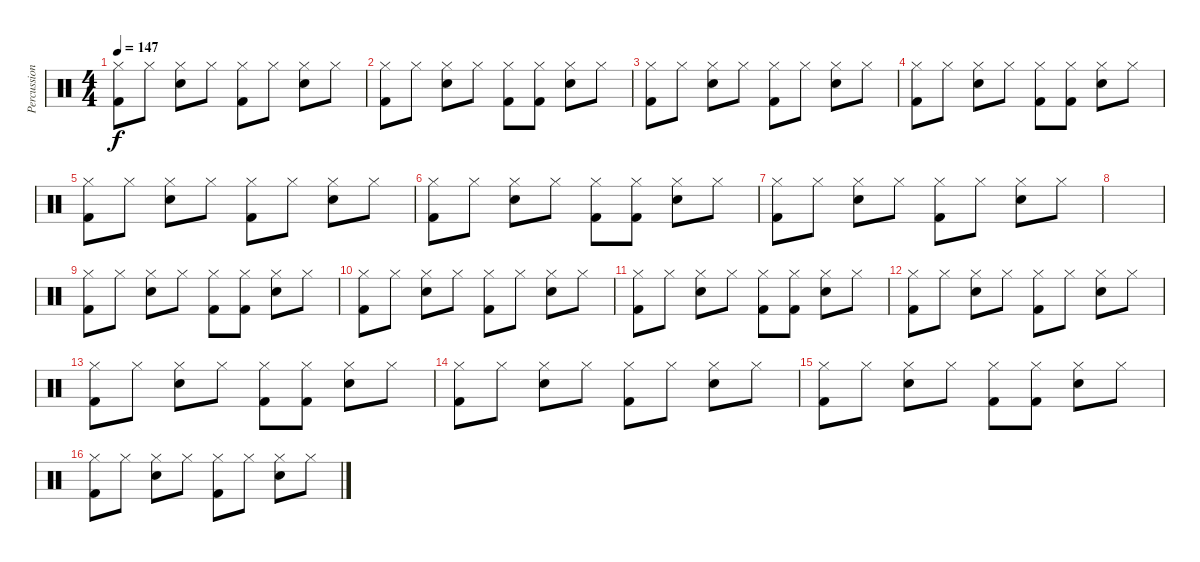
\track ("Percussions" "Percussion") {instrument percussion}
\staff {score}
\articulation defaults
\ts (4 4)
\tempo 147
\clef neutral
\ks c
("Kick (hit) 2" "Hi-Hat (closed)").8{dy f} "Hi-Hat (closed)".8 ("Electric Snare (hit)" "Hi-Hat (closed)").8 "Hi-Hat (closed)".8 ("Kick (hit) 2" "Hi-Hat (closed)").8 "Hi-Hat (closed)".8 ("Electric Snare (hit)" "Hi-Hat (closed)").8 "Hi-Hat (closed)".8 |
("Kick (hit) 2" "Hi-Hat (closed)").8 "Hi-Hat (closed)".8 ("Electric Snare (hit)" "Hi-Hat (closed)").8 "Hi-Hat (closed)".8 ("Kick (hit) 2" "Hi-Hat (closed)").8 ("Kick (hit) 2" "Hi-Hat (closed)").8 ("Electric Snare (hit)" "Hi-Hat (closed)").8 "Hi-Hat (closed)".8 |
("Kick (hit) 2" "Hi-Hat (closed)").8 "Hi-Hat (closed)".8 ("Electric Snare (hit)" "Hi-Hat (closed)").8 "Hi-Hat (closed)".8 ("Kick (hit) 2" "Hi-Hat (closed)").8 "Hi-Hat (closed)".8 ("Electric Snare (hit)" "Hi-Hat (closed)").8 "Hi-Hat (closed)".8 |
("Kick (hit) 2" "Hi-Hat (closed)").8 "Hi-Hat (closed)".8 ("Electric Snare (hit)" "Hi-Hat (closed)").8 "Hi-Hat (closed)".8 ("Kick (hit) 2" "Hi-Hat (closed)").8 ("Kick (hit) 2" "Hi-Hat (closed)").8 ("Electric Snare (hit)" "Hi-Hat (closed)").8 "Hi-Hat (closed)".8 |
("Kick (hit) 2" "Hi-Hat (closed)").8 "Hi-Hat (closed)".8 ("Electric Snare (hit)" "Hi-Hat (closed)").8 "Hi-Hat (closed)".8 ("Kick (hit) 2" "Hi-Hat (closed)").8 "Hi-Hat (closed)".8 ("Electric Snare (hit)" "Hi-Hat (closed)").8 "Hi-Hat (closed)".8 |
("Kick (hit) 2" "Hi-Hat (closed)").8 "Hi-Hat (closed)".8 ("Electric Snare (hit)" "Hi-Hat (closed)").8 "Hi-Hat (closed)".8 ("Kick (hit) 2" "Hi-Hat (closed)").8 ("Kick (hit) 2" "Hi-Hat (closed)").8 ("Electric Snare (hit)" "Hi-Hat (closed)").8 "Hi-Hat (closed)".8 |
("Kick (hit) 2" "Hi-Hat (closed)").8 "Hi-Hat (closed)".8 ("Electric Snare (hit)" "Hi-Hat (closed)").8 "Hi-Hat (closed)".8 ("Kick (hit) 2" "Hi-Hat (closed)").8 "Hi-Hat (closed)".8 ("Electric Snare (hit)" "Hi-Hat (closed)").8 "Hi-Hat (closed)".8 |
|
("Kick (hit) 2" "Hi-Hat (closed)").8 "Hi-Hat (closed)".8 ("Electric Snare (hit)" "Hi-Hat (closed)").8 "Hi-Hat (closed)".8 ("Kick (hit) 2" "Hi-Hat (closed)").8 ("Kick (hit) 2" "Hi-Hat (closed)").8 ("Electric Snare (hit)" "Hi-Hat (closed)").8 "Hi-Hat (closed)".8 |
("Kick (hit) 2" "Hi-Hat (closed)").8 "Hi-Hat (closed)".8 ("Electric Snare (hit)" "Hi-Hat (closed)").8 "Hi-Hat (closed)".8 ("Kick (hit) 2" "Hi-Hat (closed)").8 "Hi-Hat (closed)".8 ("Electric Snare (hit)" "Hi-Hat (closed)").8 "Hi-Hat (closed)".8 |
("Kick (hit) 2" "Hi-Hat (closed)").8 "Hi-Hat (closed)".8 ("Electric Snare (hit)" "Hi-Hat (closed)").8 "Hi-Hat (closed)".8 ("Kick (hit) 2" "Hi-Hat (closed)").8 ("Kick (hit) 2" "Hi-Hat (closed)").8 ("Electric Snare (hit)" "Hi-Hat (closed)").8 "Hi-Hat (closed)".8 |
("Kick (hit) 2" "Hi-Hat (closed)").8 "Hi-Hat (closed)".8 ("Electric Snare (hit)" "Hi-Hat (closed)").8 "Hi-Hat (closed)".8 ("Kick (hit) 2" "Hi-Hat (closed)").8 "Hi-Hat (closed)".8 ("Electric Snare (hit)" "Hi-Hat (closed)").8 "Hi-Hat (closed)".8 |
("Kick (hit) 2" "Hi-Hat (closed)").8 "Hi-Hat (closed)".8 ("Electric Snare (hit)" "Hi-Hat (closed)").8 "Hi-Hat (closed)".8 ("Kick (hit) 2" "Hi-Hat (closed)").8 ("Kick (hit) 2" "Hi-Hat (closed)").8 ("Electric Snare (hit)" "Hi-Hat (closed)").8 "Hi-Hat (closed)".8 |
("Kick (hit) 2" "Hi-Hat (closed)").8 "Hi-Hat (closed)".8 ("Electric Snare (hit)" "Hi-Hat (closed)").8 "Hi-Hat (closed)".8 ("Kick (hit) 2" "Hi-Hat (closed)").8 "Hi-Hat (closed)".8 ("Electric Snare (hit)" "Hi-Hat (closed)").8 "Hi-Hat (closed)".8 |
("Kick (hit) 2" "Hi-Hat (closed)").8 "Hi-Hat (closed)".8 ("Electric Snare (hit)" "Hi-Hat (closed)").8 "Hi-Hat (closed)".8 ("Kick (hit) 2" "Hi-Hat (closed)").8 ("Kick (hit) 2" "Hi-Hat (closed)").8 ("Electric Snare (hit)" "Hi-Hat (closed)").8 "Hi-Hat (closed)".8 |
("Kick (hit) 2" "Hi-Hat (closed)").8 "Hi-Hat (closed)".8 ("Electric Snare (hit)" "Hi-Hat (closed)").8 "Hi-Hat (closed)".8 ("Kick (hit) 2" "Hi-Hat (closed)").8 "Hi-Hat (closed)".8 ("Electric Snare (hit)" "Hi-Hat (closed)").8 "Hi-Hat (closed)".8
